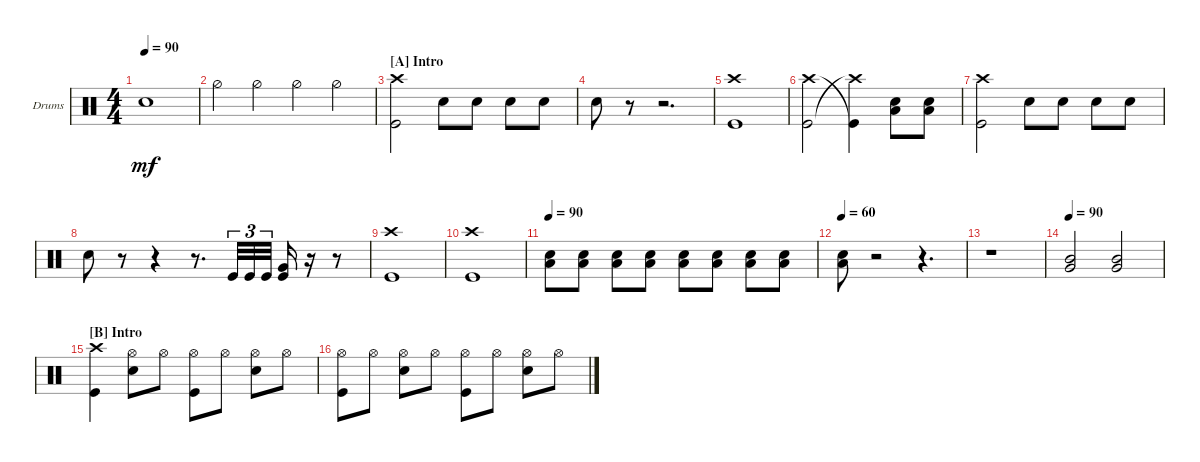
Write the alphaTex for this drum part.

\bracketExtendMode groupsimilarinstruments
\firstSystemTrackNameOrientation horizontal
\otherSystemsTrackNameOrientation horizontal
\track ("Arin Ilejay" "Drums") {instrument percussion}
\staff {score}
\articulation defaults
\ts (4 4)
\tempo 90
\clef neutral
\ks c "Snare (hit) 2".1{dy mf}
|
"Hi-Hat (half)".4 "Hi-Hat (half)".4 "Hi-Hat (half)".4 "Hi-Hat (half)".4 |
\section ("A" "Intro")
("Kick (hit)" "Crash high (hit)").2 "Snare (hit) 2".8 "Snare (hit) 2".8 "Snare (hit) 2".8 "Snare (hit) 2".8 |
"Snare (hit) 2".8 r.8 r.2{d} |
("Kick (hit)" "Crash high (hit)").1 |
("Kick (hit)" "Crash high (hit)").2 ("Crash high (hit)"{t} "Kick (hit)"{t}).4 ("Snare (hit) 2" "Low Tom (hit)").8 ("Snare (hit) 2" "Low Tom (hit)").8 |
("Kick (hit)" "Crash high (hit)").2 "Snare (hit) 2".8 "Snare (hit) 2".8 "Snare (hit) 2".8 "Snare (hit) 2".8 |
"Snare (hit) 2".8 r.8 r.4 r.8{d} "Kick (hit)".32{tu (3 2)} "Kick (hit)".32{tu (3 2)} "Kick (hit)".32{tu (3 2)} ("Very Low Tom (hit)" "Kick (hit)").16 r.16 r.8 |
("Kick (hit)" "Crash high (hit)").1 |
("Kick (hit)" "Crash high (hit)").1 |
\tempo 90
("Snare (hit) 2" "Low Tom (hit)").8 ("Snare (hit) 2" "Low Tom (hit)").8 ("Snare (hit) 2" "Low Tom (hit)").8 ("Snare (hit) 2" "Low Tom (hit)").8 ("Snare (hit) 2" "Low Tom (hit)").8 ("Snare (hit) 2" "Low Tom (hit)").8 ("Snare (hit) 2" "Low Tom (hit)").8 ("Snare (hit) 2" "Low Tom (hit)").8 |
\tempo 60
("Low Tom (hit)" "Snare (hit) 2").8 r.2 r.4{d} |
r.1 |
\tempo 90
("Very Low Tom (hit)" "Mid Tom (hit)").2 ("Very Low Tom (hit)" "Mid Tom (hit)").2 |
\section ("B" "Intro")
("Crash high (hit)" "Kick (hit)").4 ("Snare (hit) 2" "Hi-Hat (open)").8 "Hi-Hat (open)".8 ("Hi-Hat (open)" "Kick (hit)").8 "Hi-Hat (open)".8 ("Snare (hit) 2" "Hi-Hat (open)").8 "Hi-Hat (open)".8 |
("Hi-Hat (open)" "Kick (hit)").8 "Hi-Hat (open)".8 ("Snare (hit) 2" "Hi-Hat (open)").8 "Hi-Hat (open)".8 ("Hi-Hat (open)" "Kick (hit)").8 "Hi-Hat (open)".8 ("Snare (hit) 2" "Hi-Hat (open)").8 "Hi-Hat (open)".8
